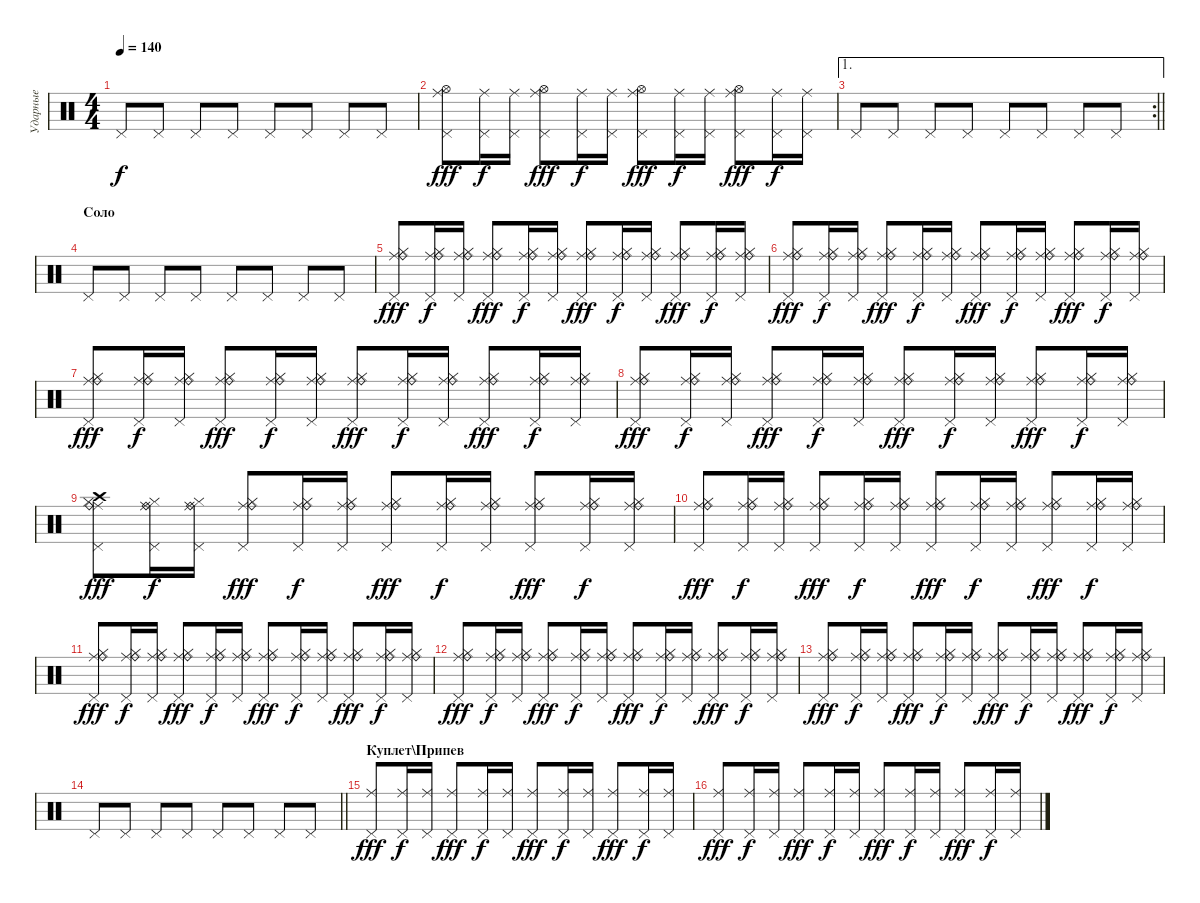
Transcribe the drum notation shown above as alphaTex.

\track ("Ударные" "Ударные") {instrument percussion}
\staff {score}
\articulation defaults
\ts (4 4)
\tempo 140
\clef neutral
\ks c "Pedal Hi-Hat (hit)".8{dy f} "Pedal Hi-Hat (hit)".8 "Pedal Hi-Hat (hit)".8 "Pedal Hi-Hat (hit)".8 "Pedal Hi-Hat (hit)".8 "Pedal Hi-Hat (hit)".8 "Pedal Hi-Hat (hit)".8 "Pedal Hi-Hat (hit)".8
|
("Ride (middle)" "Pedal Hi-Hat (hit)" "Hi-Hat (open)").8{dy fff} ("Ride (middle)" "Pedal Hi-Hat (hit)").16{dy f} ("Ride (middle)" "Pedal Hi-Hat (hit)").16 ("Ride (middle)" "Pedal Hi-Hat (hit)" "Hi-Hat (open)").8{dy fff} ("Ride (middle)" "Pedal Hi-Hat (hit)").16{dy f} ("Ride (middle)" "Pedal Hi-Hat (hit)").16 ("Ride (middle)" "Pedal Hi-Hat (hit)" "Hi-Hat (open)").8{dy fff} ("Ride (middle)" "Pedal Hi-Hat (hit)").16{dy f} ("Ride (middle)" "Pedal Hi-Hat (hit)").16 ("Ride (middle)" "Pedal Hi-Hat (hit)" "Hi-Hat (open)").8{dy fff} ("Ride (middle)" "Pedal Hi-Hat (hit)").16{dy f} ("Ride (middle)" "Pedal Hi-Hat (hit)").16 |
\ae 1
\rc 2
\barLineRight lightlight "Pedal Hi-Hat (hit)".8 "Pedal Hi-Hat (hit)".8 "Pedal Hi-Hat (hit)".8 "Pedal Hi-Hat (hit)".8 "Pedal Hi-Hat (hit)".8 "Pedal Hi-Hat (hit)".8 "Pedal Hi-Hat (hit)".8 "Pedal Hi-Hat (hit)".8
|
\section ("" "Соло")
"Pedal Hi-Hat (hit)".8 "Pedal Hi-Hat (hit)".8 "Pedal Hi-Hat (hit)".8 "Pedal Hi-Hat (hit)".8 "Pedal Hi-Hat (hit)".8 "Pedal Hi-Hat (hit)".8 "Pedal Hi-Hat (hit)".8 "Pedal Hi-Hat (hit)".8 |
("Ride (middle)" "Pedal Hi-Hat (hit)" "Hi-Hat (closed)" "Ride (bell)").8{dy fff volume 16} ("Ride (middle)" "Pedal Hi-Hat (hit)" "Hi-Hat (closed)" "Ride (bell)").16{dy f} ("Ride (middle)" "Pedal Hi-Hat (hit)" "Hi-Hat (closed)" "Ride (bell)").16 ("Ride (middle)" "Pedal Hi-Hat (hit)" "Hi-Hat (closed)" "Ride (bell)").8{dy fff} ("Ride (middle)" "Pedal Hi-Hat (hit)" "Hi-Hat (closed)" "Ride (bell)").16{dy f} ("Ride (middle)" "Pedal Hi-Hat (hit)" "Hi-Hat (closed)" "Ride (bell)").16 ("Ride (middle)" "Pedal Hi-Hat (hit)" "Hi-Hat (closed)" "Ride (bell)").8{dy fff} ("Ride (middle)" "Pedal Hi-Hat (hit)" "Hi-Hat (closed)" "Ride (bell)").16{dy f} ("Ride (middle)" "Pedal Hi-Hat (hit)" "Hi-Hat (closed)" "Ride (bell)").16 ("Ride (middle)" "Pedal Hi-Hat (hit)" "Hi-Hat (closed)" "Ride (bell)").8{dy fff} ("Ride (middle)" "Pedal Hi-Hat (hit)" "Hi-Hat (closed)" "Ride (bell)").16{dy f} ("Ride (middle)" "Pedal Hi-Hat (hit)" "Hi-Hat (closed)" "Ride (bell)").16 |
("Ride (middle)" "Pedal Hi-Hat (hit)" "Hi-Hat (closed)" "Ride (bell)").8{dy fff volume 16} ("Ride (middle)" "Pedal Hi-Hat (hit)" "Hi-Hat (closed)" "Ride (bell)").16{dy f} ("Ride (middle)" "Pedal Hi-Hat (hit)" "Hi-Hat (closed)" "Ride (bell)").16 ("Ride (middle)" "Pedal Hi-Hat (hit)" "Hi-Hat (closed)" "Ride (bell)").8{dy fff} ("Ride (middle)" "Pedal Hi-Hat (hit)" "Hi-Hat (closed)" "Ride (bell)").16{dy f} ("Ride (middle)" "Pedal Hi-Hat (hit)" "Hi-Hat (closed)" "Ride (bell)").16 ("Ride (middle)" "Pedal Hi-Hat (hit)" "Hi-Hat (closed)" "Ride (bell)").8{dy fff} ("Ride (middle)" "Pedal Hi-Hat (hit)" "Hi-Hat (closed)" "Ride (bell)").16{dy f} ("Ride (middle)" "Pedal Hi-Hat (hit)" "Hi-Hat (closed)" "Ride (bell)").16 ("Ride (middle)" "Pedal Hi-Hat (hit)" "Hi-Hat (closed)" "Ride (bell)").8{dy fff} ("Ride (middle)" "Pedal Hi-Hat (hit)" "Hi-Hat (closed)" "Ride (bell)").16{dy f} ("Ride (middle)" "Pedal Hi-Hat (hit)" "Hi-Hat (closed)" "Ride (bell)").16 |
("Ride (middle)" "Pedal Hi-Hat (hit)" "Hi-Hat (closed)" "Ride (bell)").8{dy fff volume 16} ("Ride (middle)" "Pedal Hi-Hat (hit)" "Hi-Hat (closed)" "Ride (bell)").16{dy f} ("Ride (middle)" "Pedal Hi-Hat (hit)" "Hi-Hat (closed)" "Ride (bell)").16 ("Ride (middle)" "Pedal Hi-Hat (hit)" "Hi-Hat (closed)" "Ride (bell)").8{dy fff} ("Ride (middle)" "Pedal Hi-Hat (hit)" "Hi-Hat (closed)" "Ride (bell)").16{dy f} ("Ride (middle)" "Pedal Hi-Hat (hit)" "Hi-Hat (closed)" "Ride (bell)").16 ("Ride (middle)" "Pedal Hi-Hat (hit)" "Hi-Hat (closed)" "Ride (bell)").8{dy fff} ("Ride (middle)" "Pedal Hi-Hat (hit)" "Hi-Hat (closed)" "Ride (bell)").16{dy f} ("Ride (middle)" "Pedal Hi-Hat (hit)" "Hi-Hat (closed)" "Ride (bell)").16 ("Ride (middle)" "Pedal Hi-Hat (hit)" "Hi-Hat (closed)" "Ride (bell)").8{dy fff} ("Ride (middle)" "Pedal Hi-Hat (hit)" "Hi-Hat (closed)" "Ride (bell)").16{dy f} ("Ride (middle)" "Pedal Hi-Hat (hit)" "Hi-Hat (closed)" "Ride (bell)").16 |
("Ride (middle)" "Pedal Hi-Hat (hit)" "Hi-Hat (closed)" "Ride (bell)").8{dy fff volume 16} ("Ride (middle)" "Pedal Hi-Hat (hit)" "Hi-Hat (closed)" "Ride (bell)").16{dy f} ("Ride (middle)" "Pedal Hi-Hat (hit)" "Hi-Hat (closed)" "Ride (bell)").16 ("Ride (middle)" "Pedal Hi-Hat (hit)" "Hi-Hat (closed)" "Ride (bell)").8{dy fff} ("Ride (middle)" "Pedal Hi-Hat (hit)" "Hi-Hat (closed)" "Ride (bell)").16{dy f} ("Ride (middle)" "Pedal Hi-Hat (hit)" "Hi-Hat (closed)" "Ride (bell)").16 ("Ride (middle)" "Pedal Hi-Hat (hit)" "Hi-Hat (closed)" "Ride (bell)").8{dy fff} ("Ride (middle)" "Pedal Hi-Hat (hit)" "Hi-Hat (closed)" "Ride (bell)").16{dy f} ("Ride (middle)" "Pedal Hi-Hat (hit)" "Hi-Hat (closed)" "Ride (bell)").16 ("Ride (middle)" "Pedal Hi-Hat (hit)" "Hi-Hat (closed)" "Ride (bell)").8{dy fff} ("Ride (middle)" "Pedal Hi-Hat (hit)" "Hi-Hat (closed)" "Ride (bell)").16{dy f} ("Ride (middle)" "Pedal Hi-Hat (hit)" "Hi-Hat (closed)" "Ride (bell)").16 |
("Ride (middle)" "Pedal Hi-Hat (hit)" "Hi-Hat (closed)" "Ride (bell)" "Crash high (hit)").8{dy fff volume 16} ("Ride (middle)" "Pedal Hi-Hat (hit)" "Hi-Hat (closed)" "Ride (bell)").16{dy f} ("Ride (middle)" "Pedal Hi-Hat (hit)" "Hi-Hat (closed)" "Ride (bell)").16 ("Ride (middle)" "Pedal Hi-Hat (hit)" "Hi-Hat (closed)" "Ride (bell)").8{dy fff} ("Ride (middle)" "Pedal Hi-Hat (hit)" "Hi-Hat (closed)" "Ride (bell)").16{dy f} ("Ride (middle)" "Pedal Hi-Hat (hit)" "Hi-Hat (closed)" "Ride (bell)").16 ("Ride (middle)" "Pedal Hi-Hat (hit)" "Hi-Hat (closed)" "Ride (bell)").8{dy fff} ("Ride (middle)" "Pedal Hi-Hat (hit)" "Hi-Hat (closed)" "Ride (bell)").16{dy f} ("Ride (middle)" "Pedal Hi-Hat (hit)" "Hi-Hat (closed)" "Ride (bell)").16 ("Ride (middle)" "Pedal Hi-Hat (hit)" "Hi-Hat (closed)" "Ride (bell)").8{dy fff} ("Ride (middle)" "Pedal Hi-Hat (hit)" "Hi-Hat (closed)" "Ride (bell)").16{dy f} ("Ride (middle)" "Pedal Hi-Hat (hit)" "Hi-Hat (closed)" "Ride (bell)").16 |
("Ride (middle)" "Pedal Hi-Hat (hit)" "Hi-Hat (closed)" "Ride (bell)").8{dy fff volume 16} ("Ride (middle)" "Pedal Hi-Hat (hit)" "Hi-Hat (closed)" "Ride (bell)").16{dy f} ("Ride (middle)" "Pedal Hi-Hat (hit)" "Hi-Hat (closed)" "Ride (bell)").16 ("Ride (middle)" "Pedal Hi-Hat (hit)" "Hi-Hat (closed)" "Ride (bell)").8{dy fff} ("Ride (middle)" "Pedal Hi-Hat (hit)" "Hi-Hat (closed)" "Ride (bell)").16{dy f} ("Ride (middle)" "Pedal Hi-Hat (hit)" "Hi-Hat (closed)" "Ride (bell)").16 ("Ride (middle)" "Pedal Hi-Hat (hit)" "Hi-Hat (closed)" "Ride (bell)").8{dy fff} ("Ride (middle)" "Pedal Hi-Hat (hit)" "Hi-Hat (closed)" "Ride (bell)").16{dy f} ("Ride (middle)" "Pedal Hi-Hat (hit)" "Hi-Hat (closed)" "Ride (bell)").16 ("Ride (middle)" "Pedal Hi-Hat (hit)" "Hi-Hat (closed)" "Ride (bell)").8{dy fff} ("Ride (middle)" "Pedal Hi-Hat (hit)" "Hi-Hat (closed)" "Ride (bell)").16{dy f} ("Ride (middle)" "Pedal Hi-Hat (hit)" "Hi-Hat (closed)" "Ride (bell)").16 |
("Ride (middle)" "Pedal Hi-Hat (hit)" "Hi-Hat (closed)" "Ride (bell)").8{dy fff volume 16} ("Ride (middle)" "Pedal Hi-Hat (hit)" "Hi-Hat (closed)" "Ride (bell)").16{dy f} ("Ride (middle)" "Pedal Hi-Hat (hit)" "Hi-Hat (closed)" "Ride (bell)").16 ("Ride (middle)" "Pedal Hi-Hat (hit)" "Hi-Hat (closed)" "Ride (bell)").8{dy fff} ("Ride (middle)" "Pedal Hi-Hat (hit)" "Hi-Hat (closed)" "Ride (bell)").16{dy f} ("Ride (middle)" "Pedal Hi-Hat (hit)" "Hi-Hat (closed)" "Ride (bell)").16 ("Ride (middle)" "Pedal Hi-Hat (hit)" "Hi-Hat (closed)" "Ride (bell)").8{dy fff} ("Ride (middle)" "Pedal Hi-Hat (hit)" "Hi-Hat (closed)" "Ride (bell)").16{dy f} ("Ride (middle)" "Pedal Hi-Hat (hit)" "Hi-Hat (closed)" "Ride (bell)").16 ("Ride (middle)" "Pedal Hi-Hat (hit)" "Hi-Hat (closed)" "Ride (bell)").8{dy fff} ("Ride (middle)" "Pedal Hi-Hat (hit)" "Hi-Hat (closed)" "Ride (bell)").16{dy f} ("Ride (middle)" "Pedal Hi-Hat (hit)" "Hi-Hat (closed)" "Ride (bell)").16 |
("Ride (middle)" "Pedal Hi-Hat (hit)" "Hi-Hat (closed)" "Ride (bell)").8{dy fff volume 16} ("Ride (middle)" "Pedal Hi-Hat (hit)" "Hi-Hat (closed)" "Ride (bell)").16{dy f} ("Ride (middle)" "Pedal Hi-Hat (hit)" "Hi-Hat (closed)" "Ride (bell)").16 ("Ride (middle)" "Pedal Hi-Hat (hit)" "Hi-Hat (closed)" "Ride (bell)").8{dy fff} ("Ride (middle)" "Pedal Hi-Hat (hit)" "Hi-Hat (closed)" "Ride (bell)").16{dy f} ("Ride (middle)" "Pedal Hi-Hat (hit)" "Hi-Hat (closed)" "Ride (bell)").16 ("Ride (middle)" "Pedal Hi-Hat (hit)" "Hi-Hat (closed)" "Ride (bell)").8{dy fff} ("Ride (middle)" "Pedal Hi-Hat (hit)" "Hi-Hat (closed)" "Ride (bell)").16{dy f} ("Ride (middle)" "Pedal Hi-Hat (hit)" "Hi-Hat (closed)" "Ride (bell)").16 ("Ride (middle)" "Pedal Hi-Hat (hit)" "Hi-Hat (closed)" "Ride (bell)").8{dy fff} ("Ride (middle)" "Pedal Hi-Hat (hit)" "Hi-Hat (closed)" "Ride (bell)").16{dy f} ("Ride (middle)" "Pedal Hi-Hat (hit)" "Hi-Hat (closed)" "Ride (bell)").16 |
("Ride (middle)" "Pedal Hi-Hat (hit)" "Hi-Hat (closed)" "Ride (bell)").8{dy fff volume 16} ("Ride (middle)" "Pedal Hi-Hat (hit)" "Hi-Hat (closed)" "Ride (bell)").16{dy f} ("Ride (middle)" "Pedal Hi-Hat (hit)" "Hi-Hat (closed)" "Ride (bell)").16 ("Ride (middle)" "Pedal Hi-Hat (hit)" "Hi-Hat (closed)" "Ride (bell)").8{dy fff} ("Ride (middle)" "Pedal Hi-Hat (hit)" "Hi-Hat (closed)" "Ride (bell)").16{dy f} ("Ride (middle)" "Pedal Hi-Hat (hit)" "Hi-Hat (closed)" "Ride (bell)").16 ("Ride (middle)" "Pedal Hi-Hat (hit)" "Hi-Hat (closed)" "Ride (bell)").8{dy fff} ("Ride (middle)" "Pedal Hi-Hat (hit)" "Hi-Hat (closed)" "Ride (bell)").16{dy f} ("Ride (middle)" "Pedal Hi-Hat (hit)" "Hi-Hat (closed)" "Ride (bell)").16 ("Ride (middle)" "Pedal Hi-Hat (hit)" "Hi-Hat (closed)" "Ride (bell)").8{dy fff} ("Ride (middle)" "Pedal Hi-Hat (hit)" "Hi-Hat (closed)" "Ride (bell)").16{dy f} ("Ride (middle)" "Pedal Hi-Hat (hit)" "Hi-Hat (closed)" "Ride (bell)").16 |
\barLineRight lightlight "Pedal Hi-Hat (hit)".8 "Pedal Hi-Hat (hit)".8 "Pedal Hi-Hat (hit)".8 "Pedal Hi-Hat (hit)".8 "Pedal Hi-Hat (hit)".8 "Pedal Hi-Hat (hit)".8 "Pedal Hi-Hat (hit)".8 "Pedal Hi-Hat (hit)".8
|
\section ("" "Куплет\\Припев")
("Ride (middle)" "Pedal Hi-Hat (hit)").8{dy fff} ("Ride (middle)" "Pedal Hi-Hat (hit)").16{dy f} ("Ride (middle)" "Pedal Hi-Hat (hit)").16 ("Ride (middle)" "Pedal Hi-Hat (hit)").8{dy fff} ("Ride (middle)" "Pedal Hi-Hat (hit)").16{dy f} ("Ride (middle)" "Pedal Hi-Hat (hit)").16 ("Ride (middle)" "Pedal Hi-Hat (hit)").8{dy fff} ("Ride (middle)" "Pedal Hi-Hat (hit)").16{dy f} ("Ride (middle)" "Pedal Hi-Hat (hit)").16 ("Ride (middle)" "Pedal Hi-Hat (hit)").8{dy fff} ("Ride (middle)" "Pedal Hi-Hat (hit)").16{dy f} ("Ride (middle)" "Pedal Hi-Hat (hit)").16 |
("Ride (middle)" "Pedal Hi-Hat (hit)").8{dy fff} ("Ride (middle)" "Pedal Hi-Hat (hit)").16{dy f} ("Ride (middle)" "Pedal Hi-Hat (hit)").16 ("Ride (middle)" "Pedal Hi-Hat (hit)").8{dy fff} ("Ride (middle)" "Pedal Hi-Hat (hit)").16{dy f} ("Ride (middle)" "Pedal Hi-Hat (hit)").16 ("Ride (middle)" "Pedal Hi-Hat (hit)").8{dy fff} ("Ride (middle)" "Pedal Hi-Hat (hit)").16{dy f} ("Ride (middle)" "Pedal Hi-Hat (hit)").16 ("Ride (middle)" "Pedal Hi-Hat (hit)").8{dy fff} ("Ride (middle)" "Pedal Hi-Hat (hit)").16{dy f} ("Ride (middle)" "Pedal Hi-Hat (hit)").16
